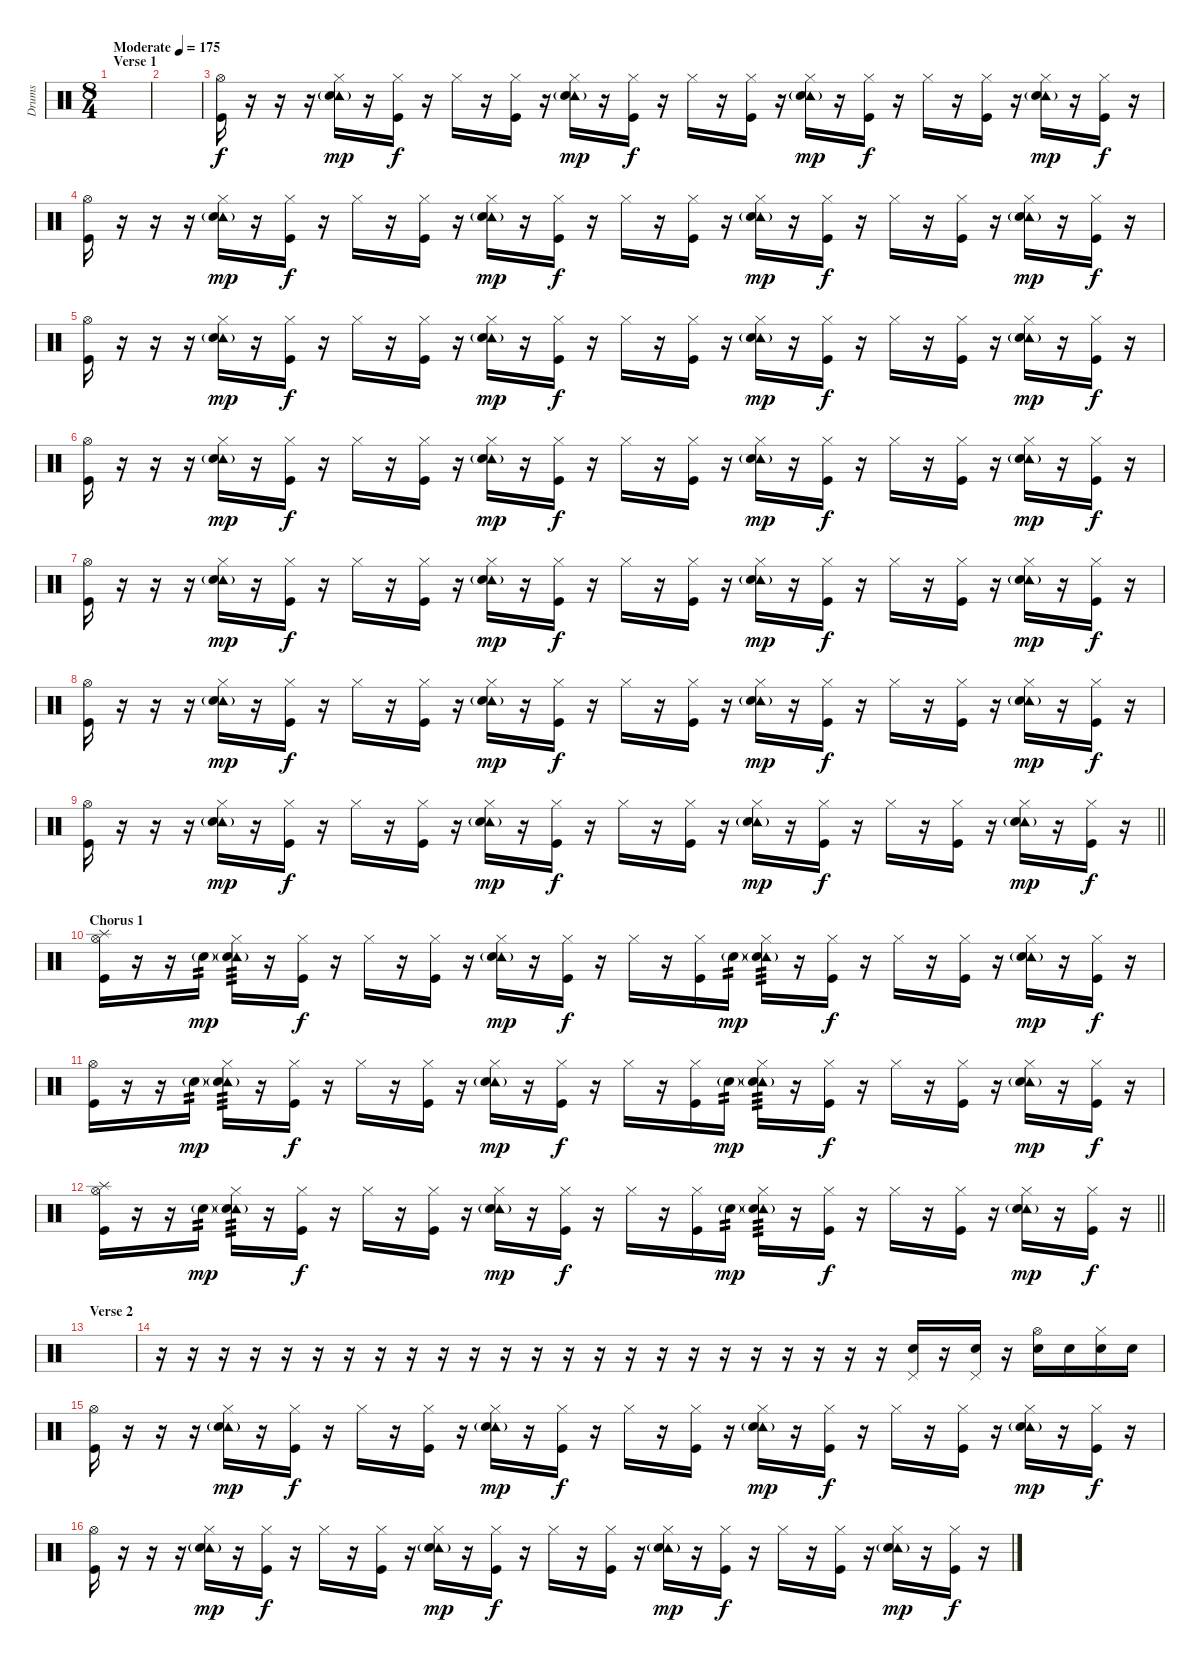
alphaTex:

\track ("Drums" "Drums") {instrument percussion}
\staff {score}
\articulation defaults
\ts (8 4)
\section ("" "Verse 1")
\tempo (175 "Moderate")
\clef neutral
\ks c
|
|
("Hi-Hat (open)" "Kick (hit)").16 r.16 r.16 r.16 ("Tambourine (hit)"{g} "Hi-Hat (closed)" "Electric Snare (hit)").16{dy mp} r.16 ("Hi-Hat (closed)" "Kick (hit)").16{dy f} r.16 "Hi-Hat (closed)".16 r.16 ("Hi-Hat (closed)" "Kick (hit)").16 r.16 ("Tambourine (hit)"{g} "Hi-Hat (closed)" "Electric Snare (hit)").16{dy mp} r.16 ("Hi-Hat (closed)" "Kick (hit)").16{dy f} r.16 "Hi-Hat (closed)".16 r.16 ("Hi-Hat (closed)" "Kick (hit)").16 r.16 ("Tambourine (hit)"{g} "Hi-Hat (closed)" "Electric Snare (hit)").16{dy mp} r.16 ("Hi-Hat (closed)" "Kick (hit)").16{dy f} r.16 "Hi-Hat (closed)".16 r.16 ("Hi-Hat (closed)" "Kick (hit)").16 r.16 ("Tambourine (hit)"{g} "Hi-Hat (closed)" "Electric Snare (hit)").16{dy mp} r.16 ("Hi-Hat (closed)" "Kick (hit)").16{dy f} r.16 |
("Hi-Hat (open)" "Kick (hit)").16 r.16 r.16 r.16 ("Tambourine (hit)"{g} "Hi-Hat (closed)" "Electric Snare (hit)").16{dy mp} r.16 ("Hi-Hat (closed)" "Kick (hit)").16{dy f} r.16 "Hi-Hat (closed)".16 r.16 ("Hi-Hat (closed)" "Kick (hit)").16 r.16 ("Tambourine (hit)"{g} "Hi-Hat (closed)" "Electric Snare (hit)").16{dy mp} r.16 ("Hi-Hat (closed)" "Kick (hit)").16{dy f} r.16 "Hi-Hat (closed)".16 r.16 ("Hi-Hat (closed)" "Kick (hit)").16 r.16 ("Tambourine (hit)"{g} "Hi-Hat (closed)" "Electric Snare (hit)").16{dy mp} r.16 ("Hi-Hat (closed)" "Kick (hit)").16{dy f} r.16 "Hi-Hat (closed)".16 r.16 ("Hi-Hat (closed)" "Kick (hit)").16 r.16 ("Tambourine (hit)"{g} "Hi-Hat (closed)" "Electric Snare (hit)").16{dy mp} r.16 ("Hi-Hat (closed)" "Kick (hit)").16{dy f} r.16 |
("Hi-Hat (open)" "Kick (hit)").16 r.16 r.16 r.16 ("Tambourine (hit)"{g} "Hi-Hat (closed)" "Electric Snare (hit)").16{dy mp} r.16 ("Hi-Hat (closed)" "Kick (hit)").16{dy f} r.16 "Hi-Hat (closed)".16 r.16 ("Hi-Hat (closed)" "Kick (hit)").16 r.16 ("Tambourine (hit)"{g} "Hi-Hat (closed)" "Electric Snare (hit)").16{dy mp} r.16 ("Hi-Hat (closed)" "Kick (hit)").16{dy f} r.16 "Hi-Hat (closed)".16 r.16 ("Hi-Hat (closed)" "Kick (hit)").16 r.16 ("Tambourine (hit)"{g} "Hi-Hat (closed)" "Electric Snare (hit)").16{dy mp} r.16 ("Hi-Hat (closed)" "Kick (hit)").16{dy f} r.16 "Hi-Hat (closed)".16 r.16 ("Hi-Hat (closed)" "Kick (hit)").16 r.16 ("Tambourine (hit)"{g} "Hi-Hat (closed)" "Electric Snare (hit)").16{dy mp} r.16 ("Hi-Hat (closed)" "Kick (hit)").16{dy f} r.16 |
("Hi-Hat (open)" "Kick (hit)").16 r.16 r.16 r.16 ("Tambourine (hit)"{g} "Hi-Hat (closed)" "Electric Snare (hit)").16{dy mp} r.16 ("Hi-Hat (closed)" "Kick (hit)").16{dy f} r.16 "Hi-Hat (closed)".16 r.16 ("Hi-Hat (closed)" "Kick (hit)").16 r.16 ("Tambourine (hit)"{g} "Hi-Hat (closed)" "Electric Snare (hit)").16{dy mp} r.16 ("Hi-Hat (closed)" "Kick (hit)").16{dy f} r.16 "Hi-Hat (closed)".16 r.16 ("Hi-Hat (closed)" "Kick (hit)").16 r.16 ("Tambourine (hit)"{g} "Hi-Hat (closed)" "Electric Snare (hit)").16{dy mp} r.16 ("Hi-Hat (closed)" "Kick (hit)").16{dy f} r.16 "Hi-Hat (closed)".16 r.16 ("Hi-Hat (closed)" "Kick (hit)").16 r.16 ("Tambourine (hit)"{g} "Hi-Hat (closed)" "Electric Snare (hit)").16{dy mp} r.16 ("Hi-Hat (closed)" "Kick (hit)").16{dy f} r.16 |
("Hi-Hat (open)" "Kick (hit)").16 r.16 r.16 r.16 ("Tambourine (hit)"{g} "Hi-Hat (closed)" "Electric Snare (hit)").16{dy mp} r.16 ("Hi-Hat (closed)" "Kick (hit)").16{dy f} r.16 "Hi-Hat (closed)".16 r.16 ("Hi-Hat (closed)" "Kick (hit)").16 r.16 ("Tambourine (hit)"{g} "Hi-Hat (closed)" "Electric Snare (hit)").16{dy mp} r.16 ("Hi-Hat (closed)" "Kick (hit)").16{dy f} r.16 "Hi-Hat (closed)".16 r.16 ("Hi-Hat (closed)" "Kick (hit)").16 r.16 ("Tambourine (hit)"{g} "Hi-Hat (closed)" "Electric Snare (hit)").16{dy mp} r.16 ("Hi-Hat (closed)" "Kick (hit)").16{dy f} r.16 "Hi-Hat (closed)".16 r.16 ("Hi-Hat (closed)" "Kick (hit)").16 r.16 ("Tambourine (hit)"{g} "Hi-Hat (closed)" "Electric Snare (hit)").16{dy mp} r.16 ("Hi-Hat (closed)" "Kick (hit)").16{dy f} r.16 |
("Hi-Hat (open)" "Kick (hit)").16 r.16 r.16 r.16 ("Tambourine (hit)"{g} "Hi-Hat (closed)" "Electric Snare (hit)").16{dy mp} r.16 ("Hi-Hat (closed)" "Kick (hit)").16{dy f} r.16 "Hi-Hat (closed)".16 r.16 ("Hi-Hat (closed)" "Kick (hit)").16 r.16 ("Tambourine (hit)"{g} "Hi-Hat (closed)" "Electric Snare (hit)").16{dy mp} r.16 ("Hi-Hat (closed)" "Kick (hit)").16{dy f} r.16 "Hi-Hat (closed)".16 r.16 ("Hi-Hat (closed)" "Kick (hit)").16 r.16 ("Tambourine (hit)"{g} "Hi-Hat (closed)" "Electric Snare (hit)").16{dy mp} r.16 ("Hi-Hat (closed)" "Kick (hit)").16{dy f} r.16 "Hi-Hat (closed)".16 r.16 ("Hi-Hat (closed)" "Kick (hit)").16 r.16 ("Tambourine (hit)"{g} "Hi-Hat (closed)" "Electric Snare (hit)").16{dy mp} r.16 ("Hi-Hat (closed)" "Kick (hit)").16{dy f} r.16 |
\barLineRight lightlight
("Hi-Hat (open)" "Kick (hit)").16 r.16 r.16 r.16 ("Tambourine (hit)"{g} "Hi-Hat (closed)" "Electric Snare (hit)").16{dy mp} r.16 ("Hi-Hat (closed)" "Kick (hit)").16{dy f} r.16 "Hi-Hat (closed)".16 r.16 ("Hi-Hat (closed)" "Kick (hit)").16 r.16 ("Tambourine (hit)"{g} "Hi-Hat (closed)" "Electric Snare (hit)").16{dy mp} r.16 ("Hi-Hat (closed)" "Kick (hit)").16{dy f} r.16 "Hi-Hat (closed)".16 r.16 ("Hi-Hat (closed)" "Kick (hit)").16 r.16 ("Tambourine (hit)"{g} "Hi-Hat (closed)" "Electric Snare (hit)").16{dy mp} r.16 ("Hi-Hat (closed)" "Kick (hit)").16{dy f} r.16 "Hi-Hat (closed)".16 r.16 ("Hi-Hat (closed)" "Kick (hit)").16 r.16 ("Tambourine (hit)"{g} "Hi-Hat (closed)" "Electric Snare (hit)").16{dy mp} r.16 ("Hi-Hat (closed)" "Kick (hit)").16{dy f} r.16 |
\section ("" "Chorus 1")
("Splash (hit)" "Hi-Hat (open)" "Kick (hit)").16 r.16 r.16 "Electric Snare (hit)"{g}.16{tp 2 dy mp} ("Tambourine (hit)"{g} "Hi-Hat (closed)" "Electric Snare (hit)").16{tp 3} r.16 ("Hi-Hat (closed)" "Kick (hit)").16{dy f} r.16 "Hi-Hat (closed)".16 r.16 ("Hi-Hat (closed)" "Kick (hit)").16 r.16 ("Tambourine (hit)"{g} "Hi-Hat (closed)" "Electric Snare (hit)").16{dy mp} r.16 ("Hi-Hat (closed)" "Kick (hit)").16{dy f} r.16 "Hi-Hat (closed)".16 r.16 ("Hi-Hat (closed)" "Kick (hit)").16 "Electric Snare (hit)"{g}.16{tp 2 dy mp} ("Tambourine (hit)"{g} "Hi-Hat (closed)" "Electric Snare (hit)").16{tp 3} r.16 ("Hi-Hat (closed)" "Kick (hit)").16{dy f} r.16 "Hi-Hat (closed)".16 r.16 ("Hi-Hat (closed)" "Kick (hit)").16 r.16 ("Tambourine (hit)"{g} "Hi-Hat (closed)" "Electric Snare (hit)").16{dy mp} r.16 ("Hi-Hat (closed)" "Kick (hit)").16{dy f} r.16 |
("Hi-Hat (open)" "Kick (hit)").16 r.16 r.16 "Electric Snare (hit)"{g}.16{tp 2 dy mp} ("Tambourine (hit)"{g} "Hi-Hat (closed)" "Electric Snare (hit)").16{tp 3} r.16 ("Hi-Hat (closed)" "Kick (hit)").16{dy f} r.16 "Hi-Hat (closed)".16 r.16 ("Hi-Hat (closed)" "Kick (hit)").16 r.16 ("Tambourine (hit)"{g} "Hi-Hat (closed)" "Electric Snare (hit)").16{dy mp} r.16 ("Hi-Hat (closed)" "Kick (hit)").16{dy f} r.16 "Hi-Hat (closed)".16 r.16 ("Hi-Hat (closed)" "Kick (hit)").16 "Electric Snare (hit)"{g}.16{tp 2 dy mp} ("Tambourine (hit)"{g} "Hi-Hat (closed)" "Electric Snare (hit)").16{tp 3} r.16 ("Hi-Hat (closed)" "Kick (hit)").16{dy f} r.16 "Hi-Hat (closed)".16 r.16 ("Hi-Hat (closed)" "Kick (hit)").16 r.16 ("Tambourine (hit)"{g} "Hi-Hat (closed)" "Electric Snare (hit)").16{dy mp} r.16 ("Hi-Hat (closed)" "Kick (hit)").16{dy f} r.16 |
\barLineRight lightlight
("Splash (hit)" "Hi-Hat (open)" "Kick (hit)").16 r.16 r.16 "Electric Snare (hit)"{g}.16{tp 2 dy mp} ("Tambourine (hit)"{g} "Hi-Hat (closed)" "Electric Snare (hit)").16{tp 3} r.16 ("Hi-Hat (closed)" "Kick (hit)").16{dy f} r.16 "Hi-Hat (closed)".16 r.16 ("Hi-Hat (closed)" "Kick (hit)").16 r.16 ("Tambourine (hit)"{g} "Hi-Hat (closed)" "Electric Snare (hit)").16{dy mp} r.16 ("Hi-Hat (closed)" "Kick (hit)").16{dy f} r.16 "Hi-Hat (closed)".16 r.16 ("Hi-Hat (closed)" "Kick (hit)").16 "Electric Snare (hit)"{g}.16{tp 2 dy mp} ("Tambourine (hit)"{g} "Hi-Hat (closed)" "Electric Snare (hit)").16{tp 3} r.16 ("Hi-Hat (closed)" "Kick (hit)").16{dy f} r.16 "Hi-Hat (closed)".16 r.16 ("Hi-Hat (closed)" "Kick (hit)").16 r.16 ("Tambourine (hit)"{g} "Hi-Hat (closed)" "Electric Snare (hit)").16{dy mp} r.16 ("Hi-Hat (closed)" "Kick (hit)").16{dy f} r.16 |
\section ("" "Verse 2")
|
r.16 r.16 r.16 r.16 r.16 r.16 r.16 r.16 r.16 r.16 r.16 r.16 r.16 r.16 r.16 r.16 r.16 r.16 r.16 r.16 r.16 r.16 r.16 r.16 ("Pedal Hi-Hat (hit)" "Electric Snare (hit)").16 r.16 ("Pedal Hi-Hat (hit)" "Electric Snare (hit)").16 r.16 ("Hi-Hat (open)" "Electric Snare (hit)").16 "Electric Snare (hit)".16 ("Hi-Hat (closed)" "Electric Snare (hit)").16 "Electric Snare (hit)".16 |
("Hi-Hat (open)" "Kick (hit)").16 r.16 r.16 r.16 ("Tambourine (hit)"{g} "Hi-Hat (closed)" "Electric Snare (hit)").16{dy mp} r.16 ("Hi-Hat (closed)" "Kick (hit)").16{dy f} r.16 "Hi-Hat (closed)".16 r.16 ("Hi-Hat (closed)" "Kick (hit)").16 r.16 ("Tambourine (hit)"{g} "Hi-Hat (closed)" "Electric Snare (hit)").16{dy mp} r.16 ("Hi-Hat (closed)" "Kick (hit)").16{dy f} r.16 "Hi-Hat (closed)".16 r.16 ("Hi-Hat (closed)" "Kick (hit)").16 r.16 ("Tambourine (hit)"{g} "Hi-Hat (closed)" "Electric Snare (hit)").16{dy mp} r.16 ("Hi-Hat (closed)" "Kick (hit)").16{dy f} r.16 "Hi-Hat (closed)".16 r.16 ("Hi-Hat (closed)" "Kick (hit)").16 r.16 ("Tambourine (hit)"{g} "Hi-Hat (closed)" "Electric Snare (hit)").16{dy mp} r.16 ("Hi-Hat (closed)" "Kick (hit)").16{dy f} r.16 |
("Hi-Hat (open)" "Kick (hit)").16 r.16 r.16 r.16 ("Tambourine (hit)"{g} "Hi-Hat (closed)" "Electric Snare (hit)").16{dy mp} r.16 ("Hi-Hat (closed)" "Kick (hit)").16{dy f} r.16 "Hi-Hat (closed)".16 r.16 ("Hi-Hat (closed)" "Kick (hit)").16 r.16 ("Tambourine (hit)"{g} "Hi-Hat (closed)" "Electric Snare (hit)").16{dy mp} r.16 ("Hi-Hat (closed)" "Kick (hit)").16{dy f} r.16 "Hi-Hat (closed)".16 r.16 ("Hi-Hat (closed)" "Kick (hit)").16 r.16 ("Tambourine (hit)"{g} "Hi-Hat (closed)" "Electric Snare (hit)").16{dy mp} r.16 ("Hi-Hat (closed)" "Kick (hit)").16{dy f} r.16 "Hi-Hat (closed)".16 r.16 ("Hi-Hat (closed)" "Kick (hit)").16 r.16 ("Tambourine (hit)"{g} "Hi-Hat (closed)" "Electric Snare (hit)").16{dy mp} r.16 ("Hi-Hat (closed)" "Kick (hit)").16{dy f} r.16
